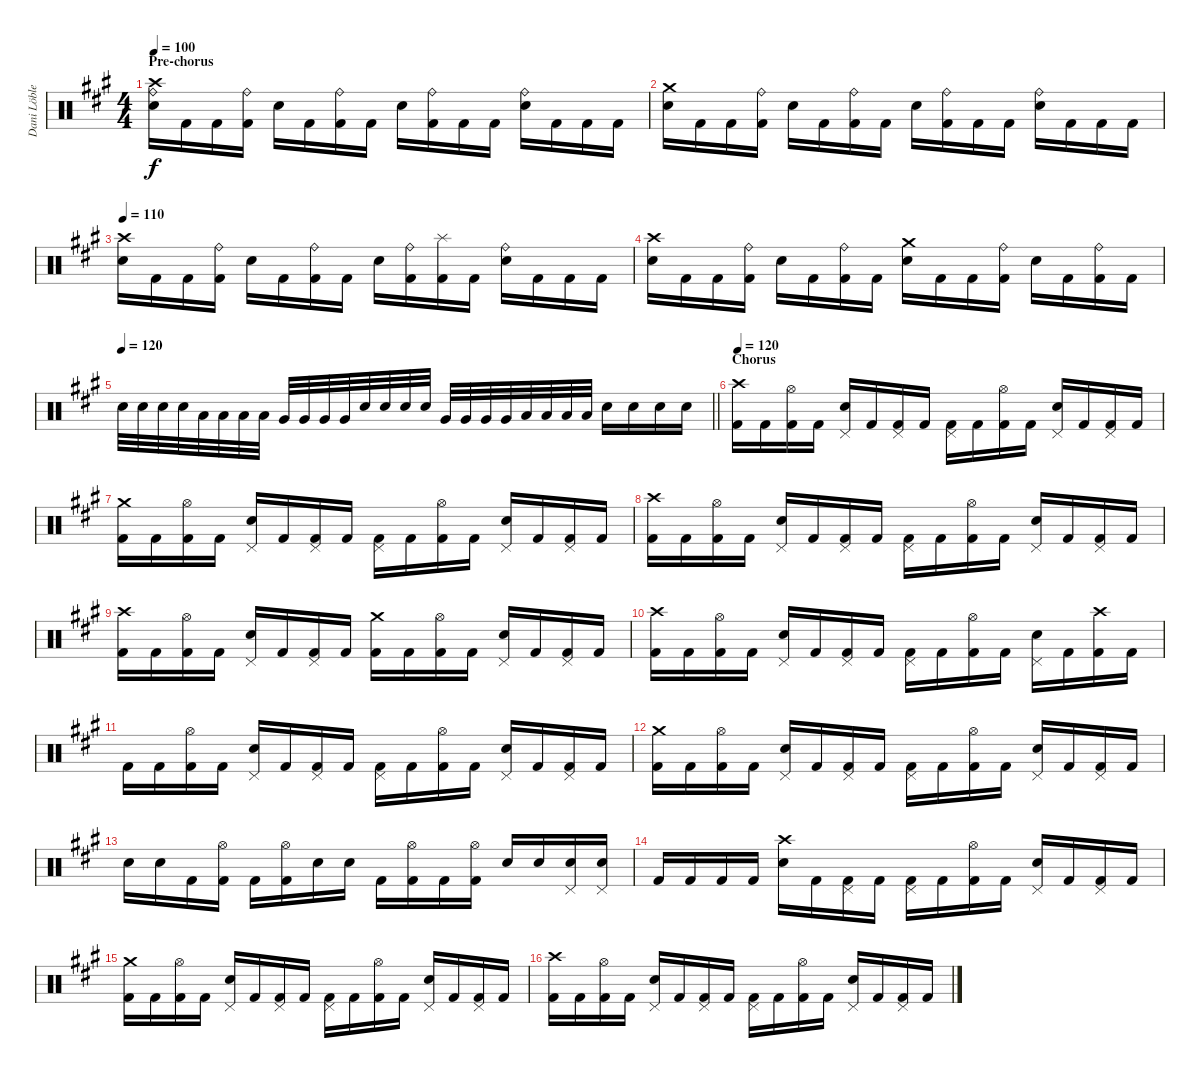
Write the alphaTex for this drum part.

\track ("Dani Löble" "Dani Löble") {instrument percussion}
\staff {score}
\articulation defaults
\ts (4 4)
\section ("" "Pre-chorus")
\tempo 100
\clef neutral
\ks f#minor
("Ride (bell)" "Crash high (hit)" "Snare (hit) 2").16{dy f} "Kick (hit) 2".16 "Kick (hit) 2".16 ("Ride (bell)" "Kick (hit) 2").16 "Snare (hit) 2".16 "Kick (hit) 2".16 ("Ride (bell)" "Kick (hit) 2").16 "Kick (hit) 2".16 "Snare (hit) 2".16 ("Ride (bell)" "Kick (hit) 2").16 "Kick (hit) 2".16 "Kick (hit) 2".16 ("Ride (bell)" "Snare (hit) 2").16 "Kick (hit) 2".16 "Kick (hit) 2".16 "Kick (hit) 2".16 |
("Crash medium (hit)" "Snare (hit) 2").16 "Kick (hit) 2".16 "Kick (hit) 2".16 ("Ride (bell)" "Kick (hit) 2").16 "Snare (hit) 2".16 "Kick (hit) 2".16 ("Ride (bell)" "Kick (hit) 2").16 "Kick (hit) 2".16 "Snare (hit) 2".16 ("Ride (bell)" "Kick (hit) 2").16 "Kick (hit) 2".16 "Kick (hit) 2".16 ("Ride (bell)" "Snare (hit) 2").16 "Kick (hit) 2".16 "Kick (hit) 2".16 "Kick (hit) 2".16 |
\tempo 110
("Crash high (hit)" "Snare (hit) 2").16 "Kick (hit) 2".16 "Kick (hit) 2".16 ("Ride (bell)" "Kick (hit) 2").16 "Snare (hit) 2".16 "Kick (hit) 2".16 ("Ride (bell)" "Kick (hit) 2").16 "Kick (hit) 2".16 "Snare (hit) 2".16 ("Ride (bell)" "Kick (hit) 2").16 ("Splash (hit)" "Kick (hit) 2").16 "Kick (hit) 2".16 ("Ride (bell)" "Snare (hit) 2").16 "Kick (hit) 2".16 "Kick (hit) 2".16 "Kick (hit) 2".16 |
("Crash high (hit)" "Snare (hit) 2").16 "Kick (hit) 2".16 "Kick (hit) 2".16 ("Ride (bell)" "Kick (hit) 2").16 "Snare (hit) 2".16 "Kick (hit) 2".16 ("Ride (bell)" "Kick (hit) 2").16 "Kick (hit) 2".16 ("Crash medium (hit)" "Snare (hit) 2").16 "Kick (hit) 2".16 "Kick (hit) 2".16 ("Ride (bell)" "Kick (hit) 2").16 "Snare (hit) 2".16 "Kick (hit) 2".16 ("Ride (bell)" "Kick (hit) 2").16 "Kick (hit) 2".16 |
\tempo 120
\barLineRight lightlight "Snare (hit) 2".32 "Snare (hit) 2".32 "Snare (hit) 2".32 "Snare (hit) 2".32 "Low Tom (hit)".32 "Low Tom (hit)".32 "Low Tom (hit)".32 "Low Tom (hit)".32 "Very Low Tom (hit)".32 "Very Low Tom (hit)".32 "Very Low Tom (hit)".32 "Very Low Tom (hit)".32 "Snare (hit) 2".32 "Snare (hit) 2".32 "Snare (hit) 2".32 "Snare (hit) 2".32 "Very Low Tom (hit)".32 "Very Low Tom (hit)".32 "Very Low Tom (hit)".32 "Very Low Tom (hit)".32 "Low Floor Tom (hit)".32 "Low Floor Tom (hit)".32 "Low Floor Tom (hit)".32 "Low Floor Tom (hit)".32 "Snare (hit) 2".16 "Snare (hit) 2".16 "Snare (hit) 2".16 "Snare (hit) 2".16
|
\section ("" "Chorus")
\tempo 120
("Crash high (hit)" "Kick (hit) 2").16 "Kick (hit) 2".16 ("Hi-Hat (open)" "Kick (hit) 2").16 "Kick (hit) 2".16 ("Pedal Hi-Hat (hit)" "Snare (hit) 2").16 "Kick (hit) 2".16 ("Pedal Hi-Hat (hit)" "Kick (hit) 2").16 "Kick (hit) 2".16 ("Pedal Hi-Hat (hit)" "Kick (hit) 2").16 "Kick (hit) 2".16 ("Hi-Hat (open)" "Kick (hit) 2").16 "Kick (hit) 2".16 ("Pedal Hi-Hat (hit)" "Snare (hit) 2").16 "Kick (hit) 2".16 ("Pedal Hi-Hat (hit)" "Kick (hit) 2").16 "Kick (hit) 2".16 |
("Crash medium (hit)" "Kick (hit) 2").16 "Kick (hit) 2".16 ("Hi-Hat (open)" "Kick (hit) 2").16 "Kick (hit) 2".16 ("Pedal Hi-Hat (hit)" "Snare (hit) 2").16 "Kick (hit) 2".16 ("Pedal Hi-Hat (hit)" "Kick (hit) 2").16 "Kick (hit) 2".16 ("Pedal Hi-Hat (hit)" "Kick (hit) 2").16 "Kick (hit) 2".16 ("Hi-Hat (open)" "Kick (hit) 2").16 "Kick (hit) 2".16 ("Pedal Hi-Hat (hit)" "Snare (hit) 2").16 "Kick (hit) 2".16 ("Pedal Hi-Hat (hit)" "Kick (hit) 2").16 "Kick (hit) 2".16 |
("Crash high (hit)" "Kick (hit) 2").16 "Kick (hit) 2".16 ("Hi-Hat (open)" "Kick (hit) 2").16 "Kick (hit) 2".16 ("Pedal Hi-Hat (hit)" "Snare (hit) 2").16 "Kick (hit) 2".16 ("Pedal Hi-Hat (hit)" "Kick (hit) 2").16 "Kick (hit) 2".16 ("Pedal Hi-Hat (hit)" "Kick (hit) 2").16 "Kick (hit) 2".16 ("Hi-Hat (open)" "Kick (hit) 2").16 "Kick (hit) 2".16 ("Pedal Hi-Hat (hit)" "Snare (hit) 2").16 "Kick (hit) 2".16 ("Pedal Hi-Hat (hit)" "Kick (hit) 2").16 "Kick (hit) 2".16 |
("Crash high (hit)" "Kick (hit) 2").16 "Kick (hit) 2".16 ("Hi-Hat (open)" "Kick (hit) 2").16 "Kick (hit) 2".16 ("Pedal Hi-Hat (hit)" "Snare (hit) 2").16 "Kick (hit) 2".16 ("Pedal Hi-Hat (hit)" "Kick (hit) 2").16 "Kick (hit) 2".16 ("Crash medium (hit)" "Kick (hit) 2").16 "Kick (hit) 2".16 ("Hi-Hat (open)" "Kick (hit) 2").16 "Kick (hit) 2".16 ("Pedal Hi-Hat (hit)" "Snare (hit) 2").16 "Kick (hit) 2".16 ("Pedal Hi-Hat (hit)" "Kick (hit) 2").16 "Kick (hit) 2".16 |
("Crash high (hit)" "Kick (hit) 2").16 "Kick (hit) 2".16 ("Hi-Hat (open)" "Kick (hit) 2").16 "Kick (hit) 2".16 ("Pedal Hi-Hat (hit)" "Snare (hit) 2").16 "Kick (hit) 2".16 ("Pedal Hi-Hat (hit)" "Kick (hit) 2").16 "Kick (hit) 2".16 ("Pedal Hi-Hat (hit)" "Kick (hit) 2").16 "Kick (hit) 2".16 ("Hi-Hat (open)" "Kick (hit) 2").16 "Kick (hit) 2".16 ("Pedal Hi-Hat (hit)" "Snare (hit) 2").16 "Kick (hit) 2".16 ("Crash high (hit)" "Kick (hit) 2").16 "Kick (hit) 2".16 |
"Kick (hit) 2".16 "Kick (hit) 2".16 ("Hi-Hat (open)" "Kick (hit) 2").16 "Kick (hit) 2".16 ("Pedal Hi-Hat (hit)" "Snare (hit) 2").16 "Kick (hit) 2".16 ("Pedal Hi-Hat (hit)" "Kick (hit) 2").16 "Kick (hit) 2".16 ("Pedal Hi-Hat (hit)" "Kick (hit) 2").16 "Kick (hit) 2".16 ("Hi-Hat (open)" "Kick (hit) 2").16 "Kick (hit) 2".16 ("Pedal Hi-Hat (hit)" "Snare (hit) 2").16 "Kick (hit) 2".16 ("Pedal Hi-Hat (hit)" "Kick (hit) 2").16 "Kick (hit) 2".16 |
("Crash medium (hit)" "Kick (hit) 2").16 "Kick (hit) 2".16 ("Hi-Hat (open)" "Kick (hit) 2").16 "Kick (hit) 2".16 ("Pedal Hi-Hat (hit)" "Snare (hit) 2").16 "Kick (hit) 2".16 ("Pedal Hi-Hat (hit)" "Kick (hit) 2").16 "Kick (hit) 2".16 ("Pedal Hi-Hat (hit)" "Kick (hit) 2").16 "Kick (hit) 2".16 ("Hi-Hat (open)" "Kick (hit) 2").16 "Kick (hit) 2".16 ("Pedal Hi-Hat (hit)" "Snare (hit) 2").16 "Kick (hit) 2".16 ("Pedal Hi-Hat (hit)" "Kick (hit) 2").16 "Kick (hit) 2".16 |
"Snare (hit) 2".16 "Snare (hit) 2".16 "Kick (hit) 2".16 ("Hi-Hat (open)" "Kick (hit) 2").16 "Kick (hit) 2".16 ("Hi-Hat (open)" "Kick (hit) 2").16 "Snare (hit) 2".16 "Snare (hit) 2".16 "Kick (hit) 2".16 ("Hi-Hat (open)" "Kick (hit) 2").16 "Kick (hit) 2".16 ("Hi-Hat (open)" "Kick (hit) 2").16 "Snare (hit) 2".16 "Snare (hit) 2".16 ("Pedal Hi-Hat (hit)" "Snare (hit) 2").16 ("Pedal Hi-Hat (hit)" "Snare (hit) 2").16 |
"Kick (hit) 2".16 "Kick (hit) 2".16 "Kick (hit) 2".16 "Kick (hit) 2".16 ("Crash high (hit)" "Snare (hit) 2").16 "Kick (hit) 2".16 ("Pedal Hi-Hat (hit)" "Kick (hit) 2").16 "Kick (hit) 2".16 ("Pedal Hi-Hat (hit)" "Kick (hit) 2").16 "Kick (hit) 2".16 ("Hi-Hat (open)" "Kick (hit) 2").16 "Kick (hit) 2".16 ("Pedal Hi-Hat (hit)" "Snare (hit) 2").16 "Kick (hit) 2".16 ("Pedal Hi-Hat (hit)" "Kick (hit) 2").16 "Kick (hit) 2".16 |
("Crash medium (hit)" "Kick (hit) 2").16 "Kick (hit) 2".16 ("Hi-Hat (open)" "Kick (hit) 2").16 "Kick (hit) 2".16 ("Pedal Hi-Hat (hit)" "Snare (hit) 2").16 "Kick (hit) 2".16 ("Pedal Hi-Hat (hit)" "Kick (hit) 2").16 "Kick (hit) 2".16 ("Pedal Hi-Hat (hit)" "Kick (hit) 2").16 "Kick (hit) 2".16 ("Hi-Hat (open)" "Kick (hit) 2").16 "Kick (hit) 2".16 ("Pedal Hi-Hat (hit)" "Snare (hit) 2").16 "Kick (hit) 2".16 ("Pedal Hi-Hat (hit)" "Kick (hit) 2").16 "Kick (hit) 2".16 |
("Crash high (hit)" "Kick (hit) 2").16 "Kick (hit) 2".16 ("Hi-Hat (open)" "Kick (hit) 2").16 "Kick (hit) 2".16 ("Pedal Hi-Hat (hit)" "Snare (hit) 2").16 "Kick (hit) 2".16 ("Pedal Hi-Hat (hit)" "Kick (hit) 2").16 "Kick (hit) 2".16 ("Pedal Hi-Hat (hit)" "Kick (hit) 2").16 "Kick (hit) 2".16 ("Hi-Hat (open)" "Kick (hit) 2").16 "Kick (hit) 2".16 ("Pedal Hi-Hat (hit)" "Snare (hit) 2").16 "Kick (hit) 2".16 ("Pedal Hi-Hat (hit)" "Kick (hit) 2").16 "Kick (hit) 2".16
